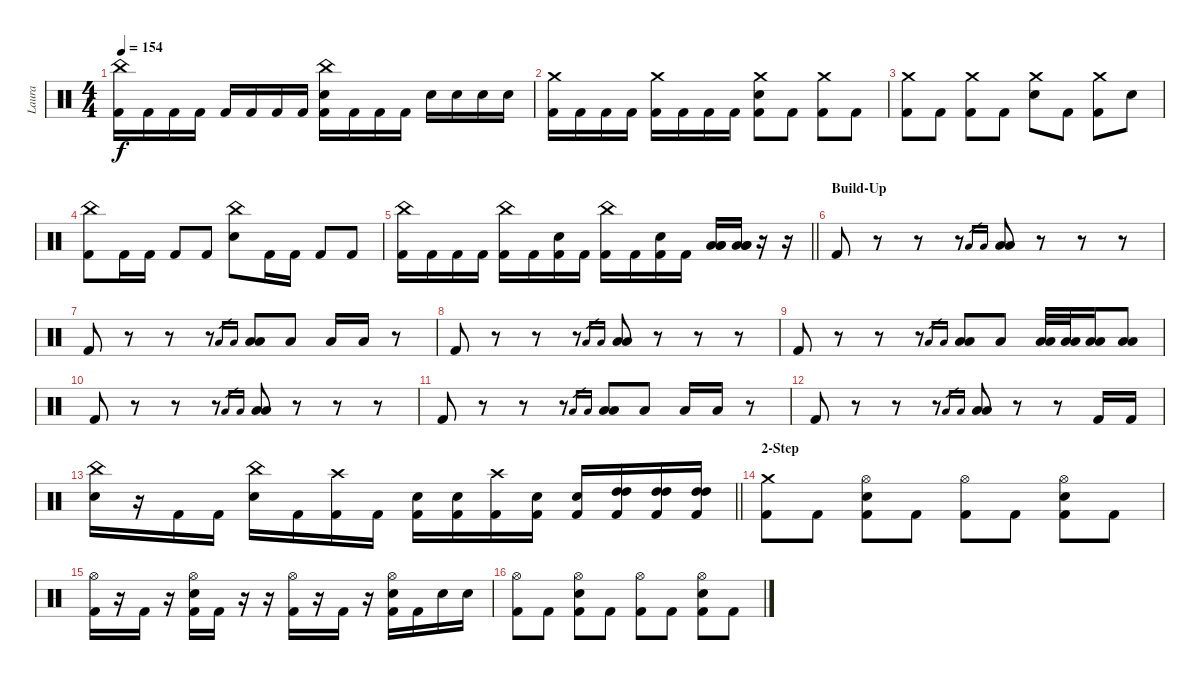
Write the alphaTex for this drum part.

\track ("Laura" "Laura") {instrument percussion}
\staff {score}
\articulation defaults
\ts (4 4)
\tempo 154
\clef neutral
\ks c
("China (hit)" "Kick (hit) 2").16{dy f} "Kick (hit) 2".16 "Kick (hit) 2".16 "Kick (hit) 2".16 "Kick (hit) 2".16 "Kick (hit) 2".16 "Kick (hit) 2".16 "Kick (hit) 2".16 ("China (hit)" "Electric Snare (hit)" "Kick (hit) 2").16 "Kick (hit) 2".16 "Kick (hit) 2".16 "Kick (hit) 2".16 "Electric Snare (hit)".16 "Electric Snare (hit)".16 "Electric Snare (hit)".16 "Electric Snare (hit)".16 |
("Crash medium (hit)" "Kick (hit) 2").16 "Kick (hit) 2".16 "Kick (hit) 2".16 "Kick (hit) 2".16 ("Crash medium (hit)" "Kick (hit) 2").16 "Kick (hit) 2".16 "Kick (hit) 2".16 "Kick (hit) 2".16 ("Crash medium (hit)" "Electric Snare (hit)" "Kick (hit) 2").8 "Kick (hit) 2".8 ("Crash medium (hit)" "Kick (hit) 2").8 "Kick (hit) 2".8 |
("Crash medium (hit)" "Kick (hit) 2").8 "Kick (hit) 2".8 ("Crash medium (hit)" "Kick (hit) 2").8 "Kick (hit) 2".8 ("Crash medium (hit)" "Electric Snare (hit)").8 "Kick (hit) 2".8 ("Crash medium (hit)" "Kick (hit) 2").8 "Electric Snare (hit)".8 |
("China (hit)" "Kick (hit) 2").8 "Kick (hit) 2".16 "Kick (hit) 2".16 "Kick (hit) 2".8 "Kick (hit) 2".8 ("China (hit)" "Electric Snare (hit)").8 "Kick (hit) 2".16 "Kick (hit) 2".16 "Kick (hit) 2".8 "Kick (hit) 2".8 |
\barLineRight lightlight
("China (hit)" "Kick (hit) 2").16 "Kick (hit) 2".16 "Kick (hit) 2".16 "Kick (hit) 2".16 ("China (hit)" "Kick (hit) 2").16 "Kick (hit) 2".16 ("Electric Snare (hit)" "Kick (hit) 2").16 "Kick (hit) 2".16 ("China (hit)" "Kick (hit) 2").16 "Kick (hit) 2".16 ("Electric Snare (hit)" "Kick (hit) 2").16 "Kick (hit) 2".16 ("Low Floor Tom (hit)" "Low Floor Tom (hit)" "Low Floor Tom (hit)").16 ("Low Floor Tom (hit)" "Low Floor Tom (hit)" "Low Floor Tom (hit)").16 r.16 r.16 |
\section ("" "Build-Up")
"Kick (hit) 2".8 r.8 r.8 r.8 "Low Tom (hit)".16{gr} "Low Floor Tom (hit)".16{gr} ("Low Tom (hit)" "Low Floor Tom (hit)").8 r.8 r.8 r.8 |
"Kick (hit) 2".8 r.8 r.8 r.8 "Low Tom (hit)".16{gr} "Low Floor Tom (hit)".16{gr} ("Low Tom (hit)" "Low Floor Tom (hit)").8 "Low Tom (hit)".8 "Low Floor Tom (hit)".16 "Low Floor Tom (hit)".16 r.8 |
"Kick (hit) 2".8 r.8 r.8 r.8 "Low Tom (hit)".16{gr} "Low Floor Tom (hit)".16{gr} ("Low Tom (hit)" "Low Floor Tom (hit)").8 r.8 r.8 r.8 |
"Kick (hit) 2".8 r.8 r.8 r.8 "Low Tom (hit)".16{gr} "Low Floor Tom (hit)".16{gr} ("Low Tom (hit)" "Low Floor Tom (hit)").8 "Low Tom (hit)".8 ("Low Floor Tom (hit)" "Low Floor Tom (hit)").32 ("Low Floor Tom (hit)" "Low Floor Tom (hit)").32 ("Low Floor Tom (hit)" "Low Floor Tom (hit)").16 ("Low Floor Tom (hit)" "Low Floor Tom (hit)").8 |
"Kick (hit) 2".8 r.8 r.8 r.8 "Low Tom (hit)".16{gr} "Low Floor Tom (hit)".16{gr} ("Low Tom (hit)" "Low Floor Tom (hit)").8 r.8 r.8 r.8 |
"Kick (hit) 2".8 r.8 r.8 r.8 "Low Tom (hit)".16{gr} "Low Floor Tom (hit)".16{gr} ("Low Tom (hit)" "Low Floor Tom (hit)").8 "Low Tom (hit)".8 "Low Floor Tom (hit)".16 "Low Floor Tom (hit)".16 r.8 |
"Kick (hit) 2".8 r.8 r.8 r.8 "Low Tom (hit)".16{gr} "Low Floor Tom (hit)".16{gr} ("Low Tom (hit)" "Low Floor Tom (hit)").8 r.8 r.8 "Kick (hit) 2".16 "Kick (hit) 2".16 |
\barLineRight lightlight
("China (hit)" "Electric Snare (hit)").16 r.16 "Kick (hit) 2".16 "Kick (hit) 2".16 ("China (hit)" "Electric Snare (hit)").16 "Kick (hit) 2".16 ("Crash high (hit)" "Kick (hit) 2").16 "Kick (hit) 2".16 ("Electric Snare (hit)" "Kick (hit) 2").16 ("Electric Snare (hit)" "Kick (hit) 2").16 ("Crash high (hit)" "Kick (hit) 2").16 ("Electric Snare (hit)" "Kick (hit) 2").16 ("Electric Snare (hit)" "Kick (hit) 2").16 ("High Tom (hit)" "High Tom (hit)" "Kick (hit) 2").16 ("High Tom (hit)" "High Tom (hit)" "Kick (hit) 2").16 ("High Tom (hit)" "High Tom (hit)" "Kick (hit) 2").16 |
\section ("" "2-Step")
("Crash medium (hit)" "Kick (hit) 2").8 "Kick (hit) 2".8 ("Hi-Hat (open)" "Electric Snare (hit)" "Kick (hit) 2").8 "Kick (hit) 2".8 ("Hi-Hat (open)" "Kick (hit) 2").8 "Kick (hit) 2".8 ("Hi-Hat (open)" "Electric Snare (hit)" "Kick (hit) 2").8 "Kick (hit) 2".8 |
("Hi-Hat (open)" "Kick (hit) 2").16 r.16 "Kick (hit) 2".16 r.16 ("Hi-Hat (open)" "Electric Snare (hit)" "Kick (hit) 2").16 "Kick (hit) 2".16 r.16 r.16 ("Hi-Hat (open)" "Kick (hit) 2").16 r.16 "Kick (hit) 2".16 r.16 ("Hi-Hat (open)" "Electric Snare (hit)" "Kick (hit) 2").16 "Kick (hit) 2".16 "Electric Snare (hit)".16 "Electric Snare (hit)".16 |
("Hi-Hat (open)" "Kick (hit) 2").8 "Kick (hit) 2".8 ("Hi-Hat (open)" "Electric Snare (hit)" "Kick (hit) 2").8 "Kick (hit) 2".8 ("Hi-Hat (open)" "Kick (hit) 2").8 "Kick (hit) 2".8 ("Hi-Hat (open)" "Electric Snare (hit)" "Kick (hit) 2").8 "Kick (hit) 2".8
